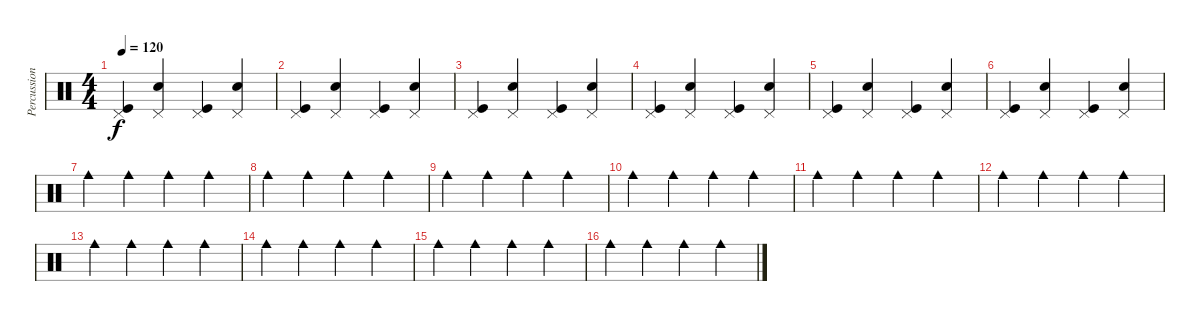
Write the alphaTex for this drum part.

\track ("Percussion" "Percussion") {instrument percussion}
\staff {score}
\articulation defaults
\ts (4 4)
\tempo 120
\clef neutral
\ks c
("Kick (hit)" "Pedal Hi-Hat (hit)").4{dy f} ("Snare (hit) 2" "Pedal Hi-Hat (hit)").4 ("Kick (hit)" "Pedal Hi-Hat (hit)").4 ("Snare (hit) 2" "Pedal Hi-Hat (hit)").4 |
("Kick (hit)" "Pedal Hi-Hat (hit)").4 ("Snare (hit) 2" "Pedal Hi-Hat (hit)").4 ("Kick (hit)" "Pedal Hi-Hat (hit)").4 ("Snare (hit) 2" "Pedal Hi-Hat (hit)").4 |
("Kick (hit)" "Pedal Hi-Hat (hit)").4 ("Snare (hit) 2" "Pedal Hi-Hat (hit)").4 ("Kick (hit)" "Pedal Hi-Hat (hit)").4 ("Snare (hit) 2" "Pedal Hi-Hat (hit)").4 |
("Kick (hit)" "Pedal Hi-Hat (hit)").4 ("Snare (hit) 2" "Pedal Hi-Hat (hit)").4 ("Kick (hit)" "Pedal Hi-Hat (hit)").4 ("Snare (hit) 2" "Pedal Hi-Hat (hit)").4 |
("Kick (hit)" "Pedal Hi-Hat (hit)").4 ("Snare (hit) 2" "Pedal Hi-Hat (hit)").4 ("Kick (hit)" "Pedal Hi-Hat (hit)").4 ("Snare (hit) 2" "Pedal Hi-Hat (hit)").4 |
("Kick (hit)" "Pedal Hi-Hat (hit)").4 ("Snare (hit) 2" "Pedal Hi-Hat (hit)").4 ("Kick (hit)" "Pedal Hi-Hat (hit)").4 ("Snare (hit) 2" "Pedal Hi-Hat (hit)").4 |
"Cowbell medium (hit)".4 "Cowbell medium (hit)".4 "Cowbell medium (hit)".4 "Cowbell medium (hit)".4 |
"Cowbell medium (hit)".4 "Cowbell medium (hit)".4 "Cowbell medium (hit)".4 "Cowbell medium (hit)".4 |
"Cowbell medium (hit)".4 "Cowbell medium (hit)".4 "Cowbell medium (hit)".4 "Cowbell medium (hit)".4 |
"Cowbell medium (hit)".4 "Cowbell medium (hit)".4 "Cowbell medium (hit)".4 "Cowbell medium (hit)".4 |
"Cowbell medium (hit)".4 "Cowbell medium (hit)".4 "Cowbell medium (hit)".4 "Cowbell medium (hit)".4 |
"Cowbell medium (hit)".4 "Cowbell medium (hit)".4 "Cowbell medium (hit)".4 "Cowbell medium (hit)".4 |
"Cowbell medium (hit)".4 "Cowbell medium (hit)".4 "Cowbell medium (hit)".4 "Cowbell medium (hit)".4 |
"Cowbell medium (hit)".4 "Cowbell medium (hit)".4 "Cowbell medium (hit)".4 "Cowbell medium (hit)".4 |
"Cowbell medium (hit)".4 "Cowbell medium (hit)".4 "Cowbell medium (hit)".4 "Cowbell medium (hit)".4 |
"Cowbell medium (hit)".4 "Cowbell medium (hit)".4 "Cowbell medium (hit)".4 "Cowbell medium (hit)".4
